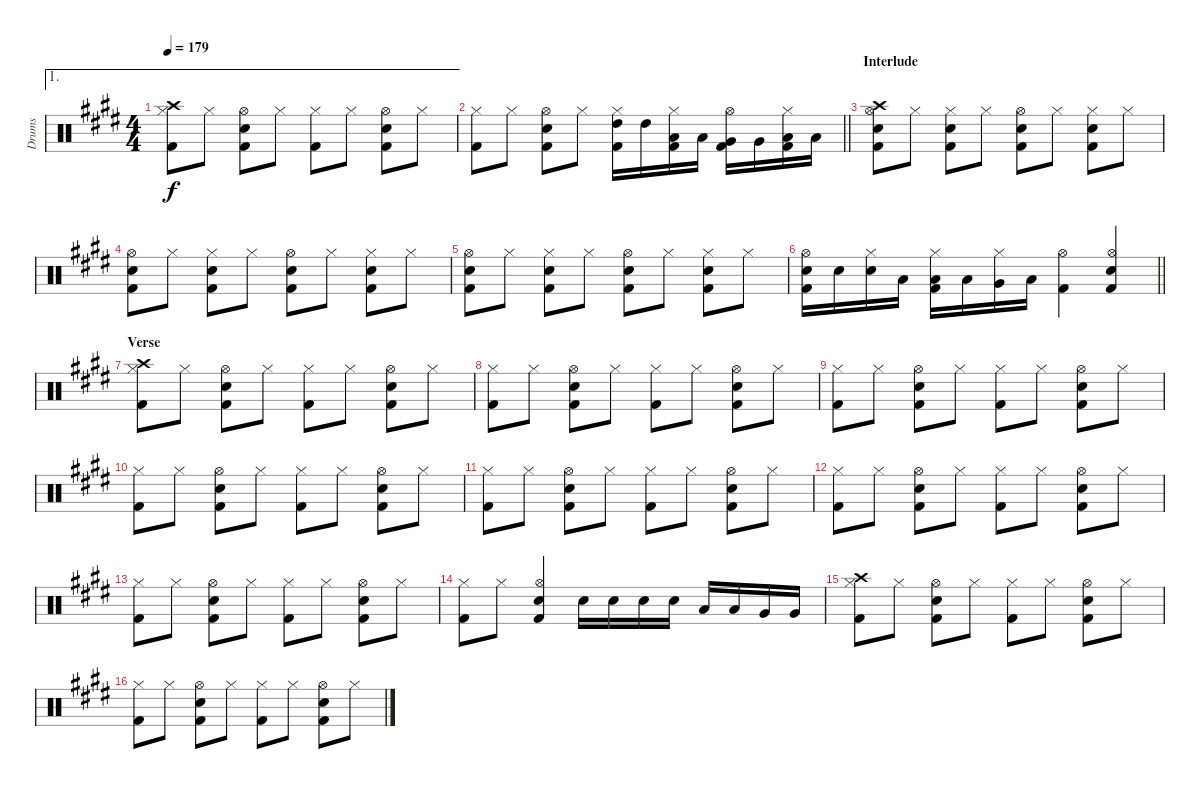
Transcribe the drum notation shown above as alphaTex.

\track ("Drums" "Drums") {instrument percussion}
\staff {score}
\articulation defaults
\ae 1
\ts (4 4)
\tempo 179
\clef neutral
\ks e
("Hi-Hat (closed)" "Crash high (hit)" "Kick (hit) 2").8{dy f} "Hi-Hat (closed)".8 ("Hi-Hat (open)" "Snare (hit) 2" "Kick (hit) 2").8 "Hi-Hat (closed)".8 ("Hi-Hat (closed)" "Kick (hit) 2").8 "Hi-Hat (closed)".8 ("Hi-Hat (open)" "Snare (hit) 2" "Kick (hit) 2").8 "Hi-Hat (closed)".8 |
\barLineRight lightlight
("Hi-Hat (closed)" "Kick (hit) 2").8 "Hi-Hat (closed)".8 ("Hi-Hat (open)" "Snare (hit) 2" "Kick (hit) 2").8 "Hi-Hat (closed)".8 ("Hi-Hat (closed)" "High Tom (hit)" "Kick (hit) 2").16 "High Tom (hit)".16 ("Hi-Hat (closed)" "Low Tom (hit)" "Kick (hit) 2").16 "Low Tom (hit)".16 ("Hi-Hat (open)" "Very Low Tom (hit)" "Kick (hit) 2").16 "Very Low Tom (hit)".16 ("Hi-Hat (closed)" "Low Floor Tom (hit)" "Kick (hit) 2").16 "Low Floor Tom (hit)".16 |
\section ("" "Interlude")
("Hi-Hat (open)" "Snare (hit) 2" "Crash high (hit)" "Kick (hit) 2").8 "Hi-Hat (closed)".8 ("Hi-Hat (closed)" "Snare (hit) 2" "Kick (hit) 2").8 "Hi-Hat (closed)".8 ("Hi-Hat (open)" "Snare (hit) 2" "Kick (hit) 2").8 "Hi-Hat (closed)".8 ("Hi-Hat (closed)" "Snare (hit) 2" "Kick (hit) 2").8 "Hi-Hat (closed)".8 |
("Hi-Hat (open)" "Snare (hit) 2" "Kick (hit) 2").8 "Hi-Hat (closed)".8 ("Hi-Hat (closed)" "Snare (hit) 2" "Kick (hit) 2").8 "Hi-Hat (closed)".8 ("Hi-Hat (open)" "Snare (hit) 2" "Kick (hit) 2").8 "Hi-Hat (closed)".8 ("Hi-Hat (closed)" "Snare (hit) 2" "Kick (hit) 2").8 "Hi-Hat (closed)".8 |
("Hi-Hat (open)" "Snare (hit) 2" "Kick (hit) 2").8 "Hi-Hat (closed)".8 ("Hi-Hat (closed)" "Snare (hit) 2" "Kick (hit) 2").8 "Hi-Hat (closed)".8 ("Hi-Hat (open)" "Snare (hit) 2" "Kick (hit) 2").8 "Hi-Hat (closed)".8 ("Hi-Hat (closed)" "Snare (hit) 2" "Kick (hit) 2").8 "Hi-Hat (closed)".8 |
\barLineRight lightlight
("Hi-Hat (open)" "Snare (hit) 2" "Kick (hit) 2").16 "Snare (hit) 2".16 ("Hi-Hat (closed)" "Snare (hit) 2").16 "Low Tom (hit)".16 ("Hi-Hat (closed)" "Low Tom (hit)" "Kick (hit) 2").16 "Low Tom (hit)".16 ("Hi-Hat (closed)" "Very Low Tom (hit)").16 "Low Floor Tom (hit)".16 ("Hi-Hat (open)" "Kick (hit) 2").4 ("Hi-Hat (open)" "Snare (hit) 2" "Kick (hit) 2").4 |
\section ("" "Verse")
("Hi-Hat (closed)" "Crash high (hit)" "Kick (hit) 2").8 "Hi-Hat (closed)".8 ("Hi-Hat (open)" "Snare (hit) 2" "Kick (hit) 2").8 "Hi-Hat (closed)".8 ("Hi-Hat (closed)" "Kick (hit) 2").8 "Hi-Hat (closed)".8 ("Hi-Hat (open)" "Snare (hit) 2" "Kick (hit) 2").8 "Hi-Hat (closed)".8 |
("Hi-Hat (closed)" "Kick (hit) 2").8 "Hi-Hat (closed)".8 ("Hi-Hat (open)" "Snare (hit) 2" "Kick (hit) 2").8 "Hi-Hat (closed)".8 ("Hi-Hat (closed)" "Kick (hit) 2").8 "Hi-Hat (closed)".8 ("Hi-Hat (open)" "Snare (hit) 2" "Kick (hit) 2").8 "Hi-Hat (closed)".8 |
("Hi-Hat (closed)" "Kick (hit) 2").8 "Hi-Hat (closed)".8 ("Hi-Hat (open)" "Snare (hit) 2" "Kick (hit) 2").8 "Hi-Hat (closed)".8 ("Hi-Hat (closed)" "Kick (hit) 2").8 "Hi-Hat (closed)".8 ("Hi-Hat (open)" "Snare (hit) 2" "Kick (hit) 2").8 "Hi-Hat (closed)".8 |
("Hi-Hat (closed)" "Kick (hit) 2").8 "Hi-Hat (closed)".8 ("Hi-Hat (open)" "Snare (hit) 2" "Kick (hit) 2").8 "Hi-Hat (closed)".8 ("Hi-Hat (closed)" "Kick (hit) 2").8 "Hi-Hat (closed)".8 ("Hi-Hat (open)" "Snare (hit) 2" "Kick (hit) 2").8 "Hi-Hat (closed)".8 |
("Hi-Hat (closed)" "Kick (hit) 2").8 "Hi-Hat (closed)".8 ("Hi-Hat (open)" "Snare (hit) 2" "Kick (hit) 2").8 "Hi-Hat (closed)".8 ("Hi-Hat (closed)" "Kick (hit) 2").8 "Hi-Hat (closed)".8 ("Hi-Hat (open)" "Snare (hit) 2" "Kick (hit) 2").8 "Hi-Hat (closed)".8 |
("Hi-Hat (closed)" "Kick (hit) 2").8 "Hi-Hat (closed)".8 ("Hi-Hat (open)" "Snare (hit) 2" "Kick (hit) 2").8 "Hi-Hat (closed)".8 ("Hi-Hat (closed)" "Kick (hit) 2").8 "Hi-Hat (closed)".8 ("Hi-Hat (open)" "Snare (hit) 2" "Kick (hit) 2").8 "Hi-Hat (closed)".8 |
("Hi-Hat (closed)" "Kick (hit) 2").8 "Hi-Hat (closed)".8 ("Hi-Hat (open)" "Snare (hit) 2" "Kick (hit) 2").8 "Hi-Hat (closed)".8 ("Hi-Hat (closed)" "Kick (hit) 2").8 "Hi-Hat (closed)".8 ("Hi-Hat (open)" "Snare (hit) 2" "Kick (hit) 2").8 "Hi-Hat (closed)".8 |
("Hi-Hat (closed)" "Kick (hit) 2").8 "Hi-Hat (closed)".8 ("Hi-Hat (open)" "Snare (hit) 2" "Kick (hit) 2").4 "Snare (hit) 2".16 "Snare (hit) 2".16 "Snare (hit) 2".16 "Snare (hit) 2".16 "Low Tom (hit)".16 "Low Tom (hit)".16 "Very Low Tom (hit)".16 "Very Low Tom (hit)".16 |
("Hi-Hat (closed)" "Crash high (hit)" "Kick (hit) 2").8 "Hi-Hat (closed)".8 ("Hi-Hat (open)" "Snare (hit) 2" "Kick (hit) 2").8 "Hi-Hat (closed)".8 ("Hi-Hat (closed)" "Kick (hit) 2").8 "Hi-Hat (closed)".8 ("Hi-Hat (open)" "Snare (hit) 2" "Kick (hit) 2").8 "Hi-Hat (closed)".8 |
("Hi-Hat (closed)" "Kick (hit) 2").8 "Hi-Hat (closed)".8 ("Hi-Hat (open)" "Snare (hit) 2" "Kick (hit) 2").8 "Hi-Hat (closed)".8 ("Hi-Hat (closed)" "Kick (hit) 2").8 "Hi-Hat (closed)".8 ("Hi-Hat (open)" "Snare (hit) 2" "Kick (hit) 2").8 "Hi-Hat (closed)".8
